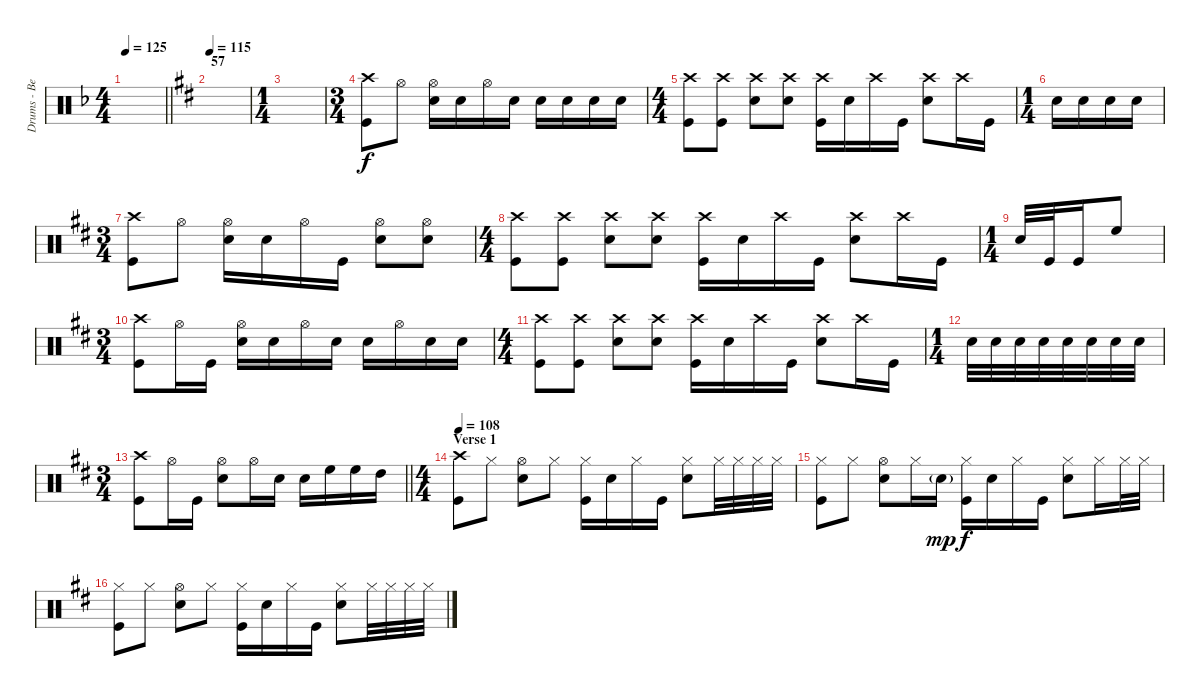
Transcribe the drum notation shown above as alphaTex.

\track ("Drums - Ben Johnston" "Drums - Be") {instrument percussion}
\staff {score}
\articulation defaults
\ts (4 4)
\tempo 125
\clef neutral
\barLineRight lightlight
\ks dminor
|
\section ("" "57")
\tempo 115
\ks d
|
\ts (1 4)
|
\ts (3 4)
("Crash high (hit)" "Kick (hit)").8 "Hi-Hat (open)".8 ("Hi-Hat (open)" "Snare (hit) 2").16 "Snare (hit) 2".16 "Hi-Hat (open)".16 "Snare (hit) 2".16 "Snare (hit) 2".16 "Snare (hit) 2".16 "Snare (hit) 2".16 "Snare (hit) 2".16 |
\ts (4 4)
("Crash high (hit)" "Kick (hit)").8 ("Crash high (hit)" "Kick (hit)").8 ("Crash high (hit)" "Snare (hit) 2").8 ("Crash high (hit)" "Snare (hit) 2").8 ("Crash high (hit)" "Kick (hit)").16 "Snare (hit) 2".16 "Crash high (hit)".16 "Kick (hit)".16 ("Crash high (hit)" "Snare (hit) 2").8 "Crash high (hit)".16 "Kick (hit)".16 |
\ts (1 4)
"Snare (hit) 2".16 "Snare (hit) 2".16 "Snare (hit) 2".16 "Snare (hit) 2".16 |
\ts (3 4)
("Crash high (hit)" "Kick (hit)").8 "Hi-Hat (open)".8 ("Hi-Hat (open)" "Snare (hit) 2").16 "Snare (hit) 2".16 "Hi-Hat (open)".16 "Kick (hit)".16 ("Hi-Hat (open)" "Snare (hit) 2").8 ("Hi-Hat (open)" "Snare (hit) 2").8 |
\ts (4 4)
("Crash high (hit)" "Kick (hit)").8 ("Crash high (hit)" "Kick (hit)").8 ("Crash high (hit)" "Snare (hit) 2").8 ("Crash high (hit)" "Snare (hit) 2").8 ("Crash high (hit)" "Kick (hit)").16 "Snare (hit) 2".16 "Crash high (hit)".16 "Kick (hit)".16 ("Crash high (hit)" "Snare (hit) 2").8 "Crash high (hit)".16 "Kick (hit)".16 |
\ts (1 4)
"Snare (hit) 2".32 "Kick (hit)".32 "Kick (hit)".16 "High Floor Tom (hit)".8 |
\ts (3 4)
("Crash high (hit)" "Kick (hit)").8 "Hi-Hat (open)".16 "Kick (hit)".16 ("Hi-Hat (open)" "Snare (hit) 2").16 "Snare (hit) 2".16 "Hi-Hat (open)".16 "Snare (hit) 2".16 "Snare (hit) 2".16 "Hi-Hat (open)".16 "Snare (hit) 2".16 "Snare (hit) 2".16 |
\ts (4 4)
("Crash high (hit)" "Kick (hit)").8 ("Crash high (hit)" "Kick (hit)").8 ("Crash high (hit)" "Snare (hit) 2").8 ("Crash high (hit)" "Snare (hit) 2").8 ("Crash high (hit)" "Kick (hit)").16 "Snare (hit) 2".16 "Crash high (hit)".16 "Kick (hit)".16 ("Crash high (hit)" "Snare (hit) 2").8 "Crash high (hit)".16 "Kick (hit)".16 |
\ts (1 4)
"Snare (hit) 2".32 "Snare (hit) 2".32 "Snare (hit) 2".32 "Snare (hit) 2".32 "Snare (hit) 2".32 "Snare (hit) 2".32 "Snare (hit) 2".32 "Snare (hit) 2".32 |
\ts (3 4)
\barLineRight lightlight
("Crash high (hit)" "Kick (hit)").8 "Hi-Hat (open)".16 "Kick (hit)".16 ("Hi-Hat (open)" "Snare (hit) 2").8 "Hi-Hat (open)".16 "Snare (hit) 2".16 "Snare (hit) 2".16 "High Floor Tom (hit)".16 "High Floor Tom (hit)".16 "High Tom (hit)".16 |
\ts (4 4)
\section ("" "Verse 1")
\tempo 108
("Crash high (hit)" "Kick (hit)").8 "Hi-Hat (closed)".8 ("Hi-Hat (open)" "Snare (hit) 2").8 "Hi-Hat (closed)".8 ("Hi-Hat (closed)" "Kick (hit)").16 "Snare (hit) 2".16 "Hi-Hat (closed)".16 "Kick (hit)".16 ("Hi-Hat (closed)" "Snare (hit) 2").8 "Hi-Hat (closed)".32 "Hi-Hat (closed)".32 "Hi-Hat (closed)".32 "Hi-Hat (closed)".32 |
("Hi-Hat (closed)" "Kick (hit)").8 "Hi-Hat (closed)".8 ("Hi-Hat (open)" "Snare (hit) 2").8 "Hi-Hat (closed)".16 "Snare (hit) 2"{g}.16{dy mp} ("Hi-Hat (closed)" "Kick (hit)").16{dy f} "Snare (hit) 2".16 "Hi-Hat (closed)".16 "Kick (hit)".16 ("Hi-Hat (closed)" "Snare (hit) 2").8 "Hi-Hat (closed)".16 "Hi-Hat (closed)".32 "Hi-Hat (closed)".32 |
("Hi-Hat (closed)" "Kick (hit)").8 "Hi-Hat (closed)".8 ("Hi-Hat (open)" "Snare (hit) 2").8 "Hi-Hat (closed)".8 ("Hi-Hat (closed)" "Kick (hit)").16 "Snare (hit) 2".16 "Hi-Hat (closed)".16 "Kick (hit)".16 ("Hi-Hat (closed)" "Snare (hit) 2").8 "Hi-Hat (closed)".32 "Hi-Hat (closed)".32 "Hi-Hat (closed)".32 "Hi-Hat (closed)".32
